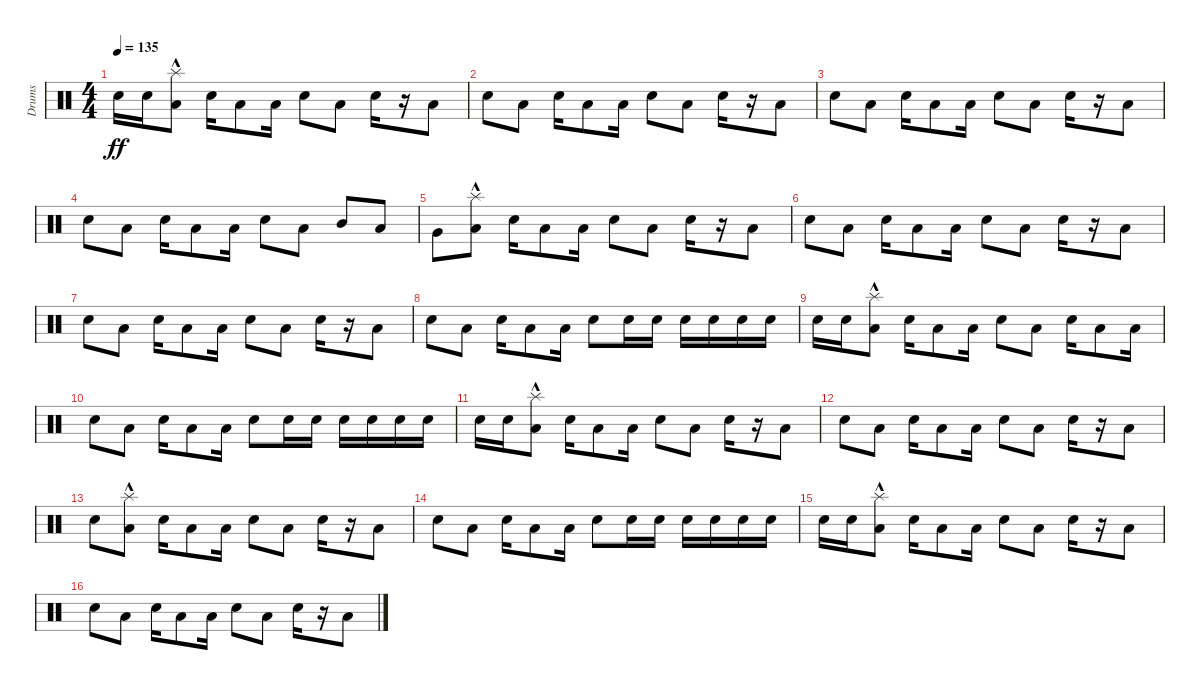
\track ("Drums" "Drums") {instrument percussion}
\staff {score}
\articulation defaults
\ts (4 4)
\tempo 135
\clef neutral
\ks c "Electric Snare (hit)".16{dy ff} "Electric Snare (hit)".16
("Low Floor Tom (hit)" "Splash (hit)"{hac}).8 "Electric Snare (hit)".16 "Low Floor Tom (hit)".8 "Low Floor Tom (hit)".16 "Electric Snare (hit)".8 "Low Floor Tom (hit)".8 "Electric Snare (hit)".16 r.16 "Low Floor Tom (hit)".8 |
"Electric Snare (hit)".8 "Low Floor Tom (hit)".8 "Electric Snare (hit)".16 "Low Floor Tom (hit)".8 "Low Floor Tom (hit)".16 "Electric Snare (hit)".8 "Low Floor Tom (hit)".8 "Electric Snare (hit)".16 r.16 "Low Floor Tom (hit)".8 |
"Electric Snare (hit)".8 "Low Floor Tom (hit)".8 "Electric Snare (hit)".16 "Low Floor Tom (hit)".8 "Low Floor Tom (hit)".16 "Electric Snare (hit)".8 "Low Floor Tom (hit)".8 "Electric Snare (hit)".16 r.16 "Low Floor Tom (hit)".8 |
"Electric Snare (hit)".8 "Low Floor Tom (hit)".8 "Electric Snare (hit)".16 "Low Floor Tom (hit)".8 "Low Floor Tom (hit)".16 "Electric Snare (hit)".8 "Low Floor Tom (hit)".8 "Mid Tom (hit)".8 "Low Tom (hit)".8 |
"Very Low Tom (hit)".8 ("Low Floor Tom (hit)" "Splash (hit)"{hac}).8 "Electric Snare (hit)".16 "Low Floor Tom (hit)".8 "Low Floor Tom (hit)".16 "Electric Snare (hit)".8 "Low Floor Tom (hit)".8 "Electric Snare (hit)".16 r.16 "Low Floor Tom (hit)".8 |
"Electric Snare (hit)".8 "Low Floor Tom (hit)".8 "Electric Snare (hit)".16 "Low Floor Tom (hit)".8 "Low Floor Tom (hit)".16 "Electric Snare (hit)".8 "Low Floor Tom (hit)".8 "Electric Snare (hit)".16 r.16 "Low Floor Tom (hit)".8 |
"Electric Snare (hit)".8 "Low Floor Tom (hit)".8 "Electric Snare (hit)".16 "Low Floor Tom (hit)".8 "Low Floor Tom (hit)".16 "Electric Snare (hit)".8 "Low Floor Tom (hit)".8 "Electric Snare (hit)".16 r.16 "Low Floor Tom (hit)".8 |
"Electric Snare (hit)".8 "Low Floor Tom (hit)".8 "Electric Snare (hit)".16 "Low Floor Tom (hit)".8 "Low Floor Tom (hit)".16 "Electric Snare (hit)".8 "Electric Snare (hit)".16 "Electric Snare (hit)".16 "Electric Snare (hit)".16 "Electric Snare (hit)".16 "Electric Snare (hit)".16 "Electric Snare (hit)".16 |
"Electric Snare (hit)".16 "Electric Snare (hit)".16 ("Low Floor Tom (hit)" "Splash (hit)"{hac}).8 "Electric Snare (hit)".16 "Low Floor Tom (hit)".8 "Low Floor Tom (hit)".16 "Electric Snare (hit)".8 "Low Floor Tom (hit)".8 "Electric Snare (hit)".16 "Low Floor Tom (hit)".8 "Low Floor Tom (hit)".16 |
"Electric Snare (hit)".8 "Low Floor Tom (hit)".8 "Electric Snare (hit)".16 "Low Floor Tom (hit)".8 "Low Floor Tom (hit)".16 "Electric Snare (hit)".8 "Electric Snare (hit)".16 "Electric Snare (hit)".16 "Electric Snare (hit)".16 "Electric Snare (hit)".16 "Electric Snare (hit)".16 "Electric Snare (hit)".16 |
"Electric Snare (hit)".16 "Electric Snare (hit)".16 ("Low Floor Tom (hit)" "Splash (hit)"{hac}).8 "Electric Snare (hit)".16 "Low Floor Tom (hit)".8 "Low Floor Tom (hit)".16 "Electric Snare (hit)".8 "Low Floor Tom (hit)".8 "Electric Snare (hit)".16 r.16 "Low Floor Tom (hit)".8 |
"Electric Snare (hit)".8 "Low Floor Tom (hit)".8 "Electric Snare (hit)".16 "Low Floor Tom (hit)".8 "Low Floor Tom (hit)".16 "Electric Snare (hit)".8 "Low Floor Tom (hit)".8 "Electric Snare (hit)".16 r.16 "Low Floor Tom (hit)".8 |
"Electric Snare (hit)".8 ("Low Floor Tom (hit)" "Splash (hit)"{hac}).8 "Electric Snare (hit)".16 "Low Floor Tom (hit)".8 "Low Floor Tom (hit)".16 "Electric Snare (hit)".8 "Low Floor Tom (hit)".8 "Electric Snare (hit)".16 r.16 "Low Floor Tom (hit)".8 |
"Electric Snare (hit)".8 "Low Floor Tom (hit)".8 "Electric Snare (hit)".16 "Low Floor Tom (hit)".8 "Low Floor Tom (hit)".16 "Electric Snare (hit)".8 "Electric Snare (hit)".16 "Electric Snare (hit)".16 "Electric Snare (hit)".16 "Electric Snare (hit)".16 "Electric Snare (hit)".16 "Electric Snare (hit)".16 |
"Electric Snare (hit)".16 "Electric Snare (hit)".16 ("Low Floor Tom (hit)" "Splash (hit)"{hac}).8 "Electric Snare (hit)".16 "Low Floor Tom (hit)".8 "Low Floor Tom (hit)".16 "Electric Snare (hit)".8 "Low Floor Tom (hit)".8 "Electric Snare (hit)".16 r.16 "Low Floor Tom (hit)".8 |
"Electric Snare (hit)".8 "Low Floor Tom (hit)".8 "Electric Snare (hit)".16 "Low Floor Tom (hit)".8 "Low Floor Tom (hit)".16 "Electric Snare (hit)".8 "Low Floor Tom (hit)".8 "Electric Snare (hit)".16 r.16 "Low Floor Tom (hit)".8
